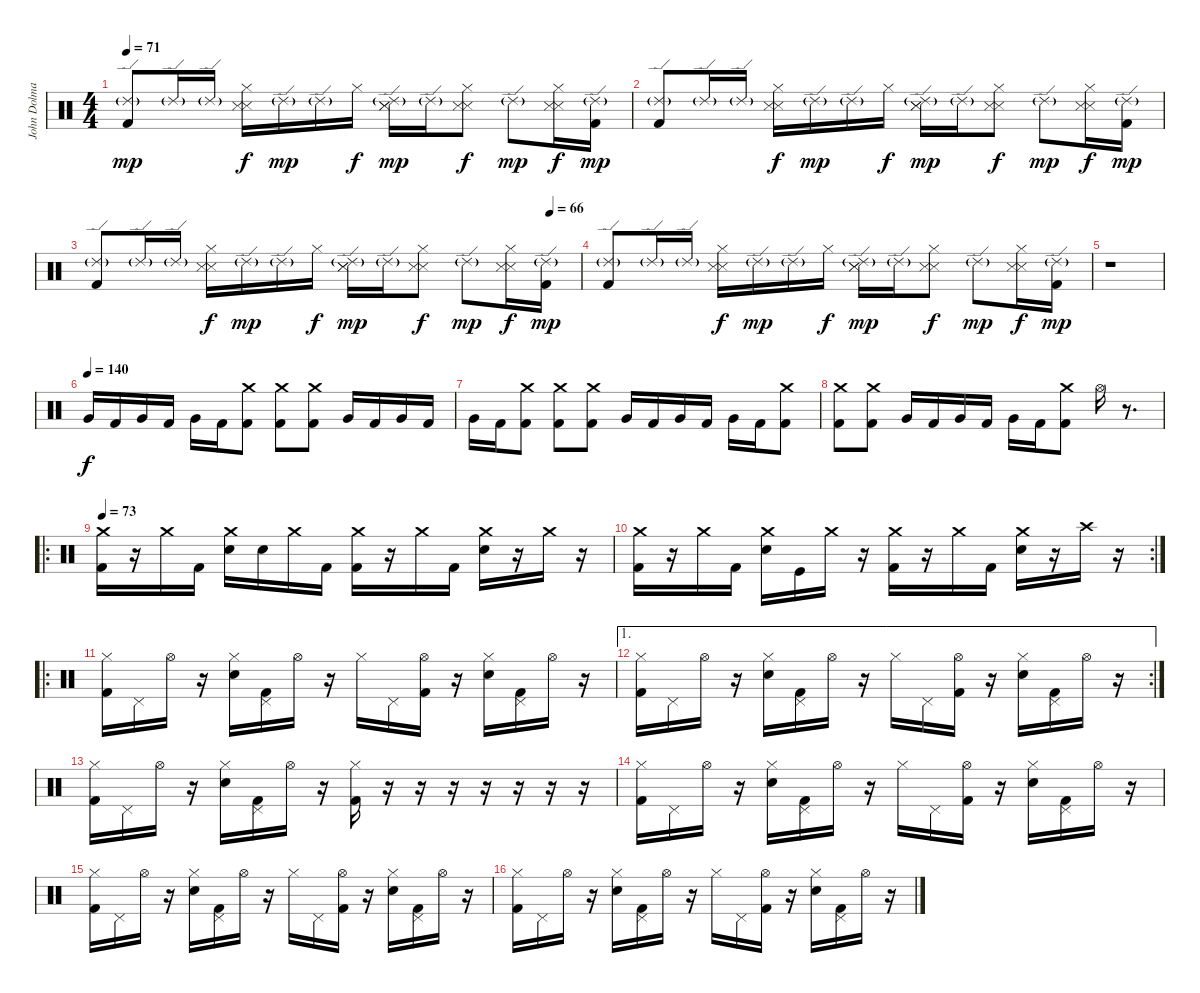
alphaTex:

\track ("John Dolmayan (Drums)" "John Dolma") {instrument percussion}
\staff {score}
\articulation defaults
\ts (4 4)
\tempo 71
\clef neutral
\ks c
("Ride (edge) 2"{g} "Kick (hit) 2").8{dy mp} "Ride (edge) 2"{g}.16 "Ride (edge) 2"{g}.16 ("Hi-Hat (closed)" "Metronome (hit)" "Metronome (hit)").16{dy f} "Ride (edge) 2"{g}.16{dy mp} "Ride (edge) 2"{g}.16 "Hi-Hat (closed)".16{dy f} ("Ride (edge) 2"{g} "Metronome (hit)" "Metronome (hit)").16{dy mp} "Ride (edge) 2"{g}.16 ("Hi-Hat (closed)" "Metronome (hit)" "Metronome (hit)").8{dy f} "Ride (edge) 2"{g}.8{dy mp} ("Hi-Hat (closed)" "Metronome (hit)" "Metronome (hit)").16{dy f} ("Ride (edge) 2"{g} "Kick (hit) 2").16{dy mp volume 6} |
("Ride (edge) 2"{g} "Kick (hit) 2").8 "Ride (edge) 2"{g}.16 "Ride (edge) 2"{g}.16 ("Hi-Hat (closed)" "Metronome (hit)" "Metronome (hit)").16{dy f} "Ride (edge) 2"{g}.16{dy mp} "Ride (edge) 2"{g}.16 "Hi-Hat (closed)".16{dy f} ("Ride (edge) 2"{g} "Metronome (hit)" "Metronome (hit)").16{dy mp} "Ride (edge) 2"{g}.16 ("Hi-Hat (closed)" "Metronome (hit)" "Metronome (hit)").8{dy f} "Ride (edge) 2"{g}.8{dy mp} ("Hi-Hat (closed)" "Metronome (hit)" "Metronome (hit)").16{dy f} ("Ride (edge) 2"{g} "Kick (hit) 2").16{dy mp volume 4} |
\tempo (66 0.9375)
("Ride (edge) 2"{g} "Kick (hit) 2").8 "Ride (edge) 2"{g}.16 "Ride (edge) 2"{g}.16 ("Hi-Hat (closed)" "Metronome (hit)" "Metronome (hit)").16{dy f} "Ride (edge) 2"{g}.16{dy mp} "Ride (edge) 2"{g}.16 "Hi-Hat (closed)".16{dy f} ("Ride (edge) 2"{g} "Metronome (hit)" "Metronome (hit)").16{dy mp} "Ride (edge) 2"{g}.16 ("Hi-Hat (closed)" "Metronome (hit)" "Metronome (hit)").8{dy f} "Ride (edge) 2"{g}.8{dy mp} ("Hi-Hat (closed)" "Metronome (hit)" "Metronome (hit)").16{dy f} ("Ride (edge) 2"{g} "Kick (hit) 2").16{dy mp volume 0} |
("Ride (edge) 2"{g} "Kick (hit) 2").8 "Ride (edge) 2"{g}.16 "Ride (edge) 2"{g}.16 ("Hi-Hat (closed)" "Metronome (hit)" "Metronome (hit)").16{dy f} "Ride (edge) 2"{g}.16{dy mp} "Ride (edge) 2"{g}.16 "Hi-Hat (closed)".16{dy f} ("Ride (edge) 2"{g} "Metronome (hit)" "Metronome (hit)").16{dy mp} "Ride (edge) 2"{g}.16 ("Hi-Hat (closed)" "Metronome (hit)" "Metronome (hit)").8{dy f} "Ride (edge) 2"{g}.8{dy mp} ("Hi-Hat (closed)" "Metronome (hit)" "Metronome (hit)").16{dy f} ("Ride (edge) 2"{g} "Kick (hit) 2").16{dy mp} |
r.1 |
\tempo (140)
"Very Low Tom (hit)".16{dy f volume 13} "Kick (hit) 2".16 "Very Low Tom (hit)".16 "Kick (hit) 2".16 "Very Low Tom (hit)".16 "Kick (hit) 2".16 ("Crash medium (hit)" "Kick (hit) 2").8 ("Crash medium (hit)" "Kick (hit) 2").8 ("Crash medium (hit)" "Kick (hit) 2").8 "Very Low Tom (hit)".16 "Kick (hit) 2".16 "Very Low Tom (hit)".16 "Kick (hit) 2".16 |
"Very Low Tom (hit)".16 "Kick (hit) 2".16 ("Crash medium (hit)" "Kick (hit) 2").8 ("Crash medium (hit)" "Kick (hit) 2").8 ("Crash medium (hit)" "Kick (hit) 2").8 "Very Low Tom (hit)".16 "Kick (hit) 2".16 "Very Low Tom (hit)".16 "Kick (hit) 2".16 "Very Low Tom (hit)".16 "Kick (hit) 2".16 ("Crash medium (hit)" "Kick (hit) 2").8 |
("Crash medium (hit)" "Kick (hit) 2").8 ("Crash medium (hit)" "Kick (hit) 2").8 "Very Low Tom (hit)".16 "Kick (hit) 2".16 "Very Low Tom (hit)".16 "Kick (hit) 2".16 "Very Low Tom (hit)".16 "Kick (hit) 2".16 ("Crash medium (hit)" "Kick (hit) 2").8 "Hi-Hat (open)".16 r.8{d} |
\ro
\tempo 73
("Crash medium (hit)" "Kick (hit) 2").16 r.16 "Crash medium (hit)".16 "Kick (hit) 2".16 ("Crash medium (hit)" "Electric Snare (hit)").16 "Electric Snare (hit)".16 "Crash medium (hit)".16 "Kick (hit) 2".16 ("Crash medium (hit)" "Kick (hit) 2").16 r.16 "Crash medium (hit)".16 "Kick (hit) 2".16 ("Crash medium (hit)" "Electric Snare (hit)").16 r.16 "Crash medium (hit)".16 r.16 |
\rc 2
("Crash medium (hit)" "Kick (hit) 2").16 r.16 "Crash medium (hit)".16 "Kick (hit) 2".16 ("Crash medium (hit)" "Electric Snare (hit)").16 "Kick (hit)".16 "Crash medium (hit)".16 r.16 ("Crash medium (hit)" "Kick (hit) 2").16 r.16 "Crash medium (hit)".16 "Kick (hit) 2".16 ("Crash medium (hit)" "Electric Snare (hit)").16 r.16 "Crash high (hit)".16 r.16 |
\ro
("Hi-Hat (closed)" "Kick (hit) 2").16 "Pedal Hi-Hat (hit)".16 "Hi-Hat (open)".16 r.16 ("Hi-Hat (closed)" "Electric Snare (hit)").16 ("Pedal Hi-Hat (hit)" "Kick (hit) 2").16 "Hi-Hat (open)".16 r.16 "Hi-Hat (closed)".16 "Pedal Hi-Hat (hit)".16 ("Hi-Hat (open)" "Kick (hit) 2").16 r.16 ("Hi-Hat (closed)" "Electric Snare (hit)").16 ("Pedal Hi-Hat (hit)" "Kick (hit) 2").16 "Hi-Hat (open)".16 r.16 |
\ae 1
\rc 2
("Hi-Hat (closed)" "Kick (hit) 2").16 "Pedal Hi-Hat (hit)".16 "Hi-Hat (open)".16 r.16 ("Hi-Hat (closed)" "Electric Snare (hit)").16 ("Pedal Hi-Hat (hit)" "Kick (hit) 2").16 "Hi-Hat (open)".16 r.16 "Hi-Hat (closed)".16 "Pedal Hi-Hat (hit)".16 ("Hi-Hat (open)" "Kick (hit) 2").16 r.16 ("Hi-Hat (closed)" "Electric Snare (hit)").16 ("Pedal Hi-Hat (hit)" "Kick (hit) 2").16 "Hi-Hat (open)".16 r.16 |
("Hi-Hat (closed)" "Kick (hit) 2").16 "Pedal Hi-Hat (hit)".16 "Hi-Hat (open)".16 r.16 ("Hi-Hat (closed)" "Electric Snare (hit)").16 ("Pedal Hi-Hat (hit)" "Kick (hit) 2").16 "Hi-Hat (open)".16 r.16 ("Hi-Hat (closed)" "Kick (hit) 2").16 r.16 r.16 r.16 r.16 r.16 r.16 r.16 |
("Hi-Hat (closed)" "Kick (hit) 2").16 "Pedal Hi-Hat (hit)".16 "Hi-Hat (open)".16 r.16 ("Hi-Hat (closed)" "Electric Snare (hit)").16 ("Pedal Hi-Hat (hit)" "Kick (hit) 2").16 "Hi-Hat (open)".16 r.16 "Hi-Hat (closed)".16 "Pedal Hi-Hat (hit)".16 ("Hi-Hat (open)" "Kick (hit) 2").16 r.16 ("Hi-Hat (closed)" "Electric Snare (hit)").16 ("Pedal Hi-Hat (hit)" "Kick (hit) 2").16 "Hi-Hat (open)".16 r.16 |
("Hi-Hat (closed)" "Kick (hit) 2").16 "Pedal Hi-Hat (hit)".16 "Hi-Hat (open)".16 r.16 ("Hi-Hat (closed)" "Electric Snare (hit)").16 ("Pedal Hi-Hat (hit)" "Kick (hit) 2").16 "Hi-Hat (open)".16 r.16 "Hi-Hat (closed)".16 "Pedal Hi-Hat (hit)".16 ("Hi-Hat (open)" "Kick (hit) 2").16 r.16 ("Hi-Hat (closed)" "Electric Snare (hit)").16 ("Pedal Hi-Hat (hit)" "Kick (hit) 2").16 "Hi-Hat (open)".16 r.16 |
("Hi-Hat (closed)" "Kick (hit) 2").16 "Pedal Hi-Hat (hit)".16 "Hi-Hat (open)".16 r.16 ("Hi-Hat (closed)" "Electric Snare (hit)").16 ("Pedal Hi-Hat (hit)" "Kick (hit) 2").16 "Hi-Hat (open)".16 r.16 "Hi-Hat (closed)".16 "Pedal Hi-Hat (hit)".16 ("Hi-Hat (open)" "Kick (hit) 2").16 r.16 ("Hi-Hat (closed)" "Electric Snare (hit)").16 ("Pedal Hi-Hat (hit)" "Kick (hit) 2").16 "Hi-Hat (open)".16 r.16
